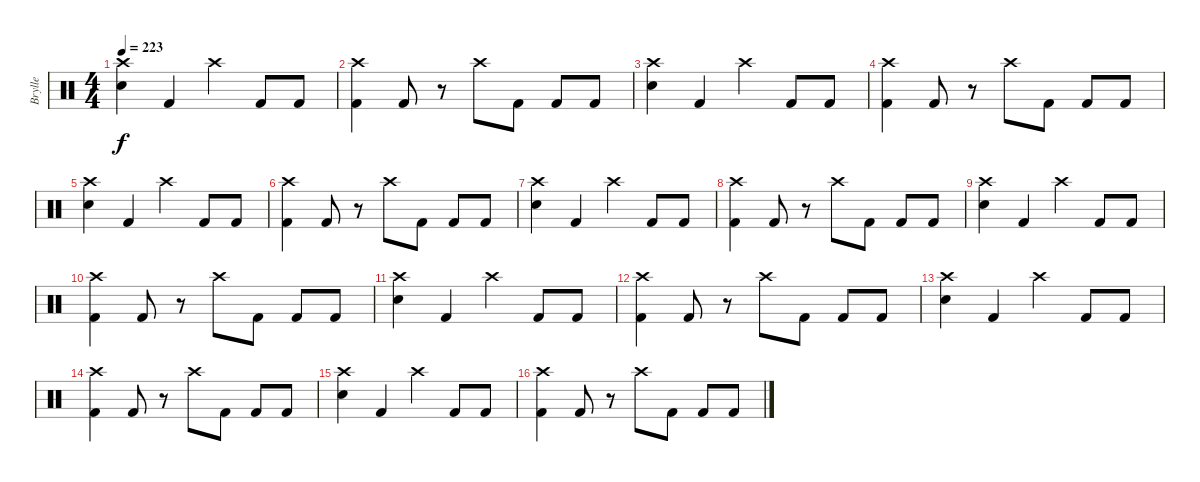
\track ("Brylle" "Brylle") {instrument percussion}
\staff {score}
\articulation defaults
\ts (4 4)
\tempo 223
\clef neutral
\ks c
("Crash high (hit)" "Electric Snare (hit)").4{dy f} "Kick (hit) 2".4 "Crash high (hit)".4 "Kick (hit) 2".8 "Kick (hit) 2".8 |
("Crash high (hit)" "Kick (hit) 2").4 "Kick (hit) 2".8 r.8 "Crash high (hit)".8 "Kick (hit) 2".8 "Kick (hit) 2".8 "Kick (hit) 2".8 |
("Crash high (hit)" "Electric Snare (hit)").4 "Kick (hit) 2".4 "Crash high (hit)".4 "Kick (hit) 2".8 "Kick (hit) 2".8 |
("Crash high (hit)" "Kick (hit) 2").4 "Kick (hit) 2".8 r.8 "Crash high (hit)".8 "Kick (hit) 2".8 "Kick (hit) 2".8 "Kick (hit) 2".8 |
("Crash high (hit)" "Electric Snare (hit)").4 "Kick (hit) 2".4 "Crash high (hit)".4 "Kick (hit) 2".8 "Kick (hit) 2".8 |
("Crash high (hit)" "Kick (hit) 2").4 "Kick (hit) 2".8 r.8 "Crash high (hit)".8 "Kick (hit) 2".8 "Kick (hit) 2".8 "Kick (hit) 2".8 |
("Crash high (hit)" "Electric Snare (hit)").4 "Kick (hit) 2".4 "Crash high (hit)".4 "Kick (hit) 2".8 "Kick (hit) 2".8 |
("Crash high (hit)" "Kick (hit) 2").4 "Kick (hit) 2".8 r.8 "Crash high (hit)".8 "Kick (hit) 2".8 "Kick (hit) 2".8 "Kick (hit) 2".8 |
("Crash high (hit)" "Electric Snare (hit)").4 "Kick (hit) 2".4 "Crash high (hit)".4 "Kick (hit) 2".8 "Kick (hit) 2".8 |
("Crash high (hit)" "Kick (hit) 2").4 "Kick (hit) 2".8 r.8 "Crash high (hit)".8 "Kick (hit) 2".8 "Kick (hit) 2".8 "Kick (hit) 2".8 |
("Crash high (hit)" "Electric Snare (hit)").4 "Kick (hit) 2".4 "Crash high (hit)".4 "Kick (hit) 2".8 "Kick (hit) 2".8 |
("Crash high (hit)" "Kick (hit) 2").4 "Kick (hit) 2".8 r.8 "Crash high (hit)".8 "Kick (hit) 2".8 "Kick (hit) 2".8 "Kick (hit) 2".8 |
("Crash high (hit)" "Electric Snare (hit)").4 "Kick (hit) 2".4 "Crash high (hit)".4 "Kick (hit) 2".8 "Kick (hit) 2".8 |
("Crash high (hit)" "Kick (hit) 2").4 "Kick (hit) 2".8 r.8 "Crash high (hit)".8 "Kick (hit) 2".8 "Kick (hit) 2".8 "Kick (hit) 2".8 |
("Crash high (hit)" "Electric Snare (hit)").4 "Kick (hit) 2".4 "Crash high (hit)".4 "Kick (hit) 2".8 "Kick (hit) 2".8 |
("Crash high (hit)" "Kick (hit) 2").4 "Kick (hit) 2".8 r.8 "Crash high (hit)".8 "Kick (hit) 2".8 "Kick (hit) 2".8 "Kick (hit) 2".8
